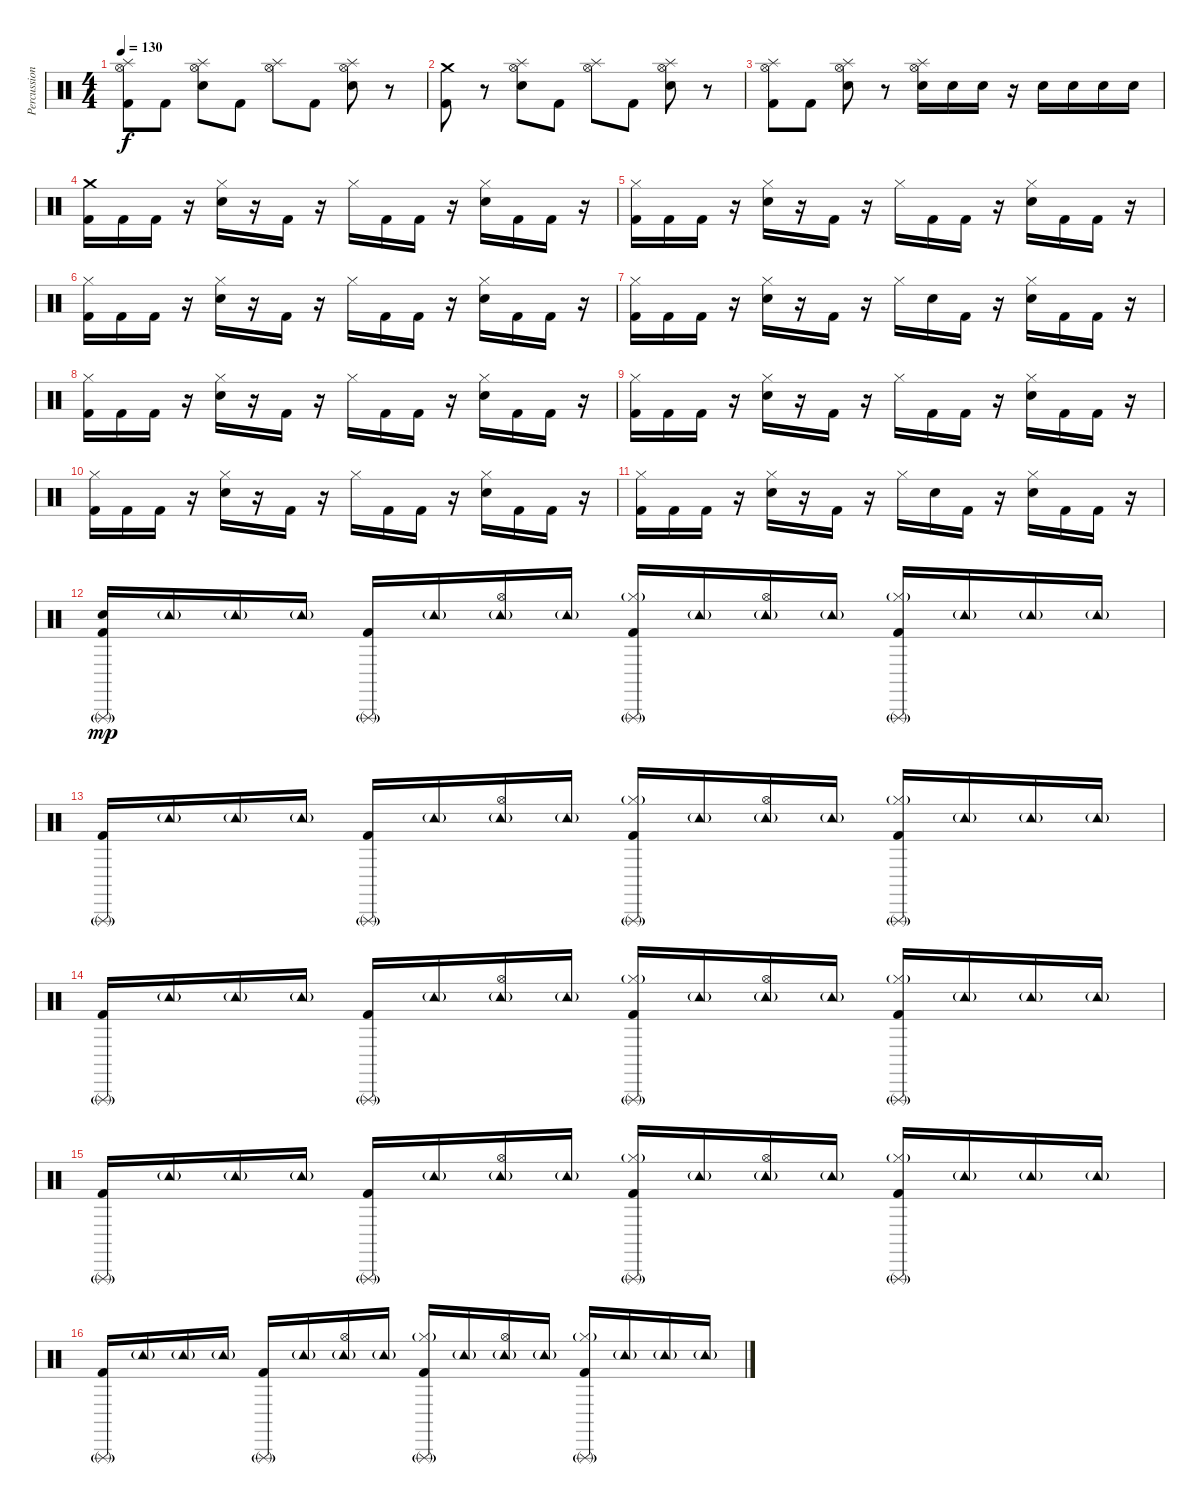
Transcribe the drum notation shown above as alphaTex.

\track ("Percussion" "Percussion") {instrument percussion}
\staff {score}
\articulation defaults
\ts (4 4)
\tempo 130
\clef neutral
\ks c
("Splash (hit)" "Hi-Hat (open)" "Kick (hit) 2").8{dy f} "Kick (hit) 2".8 ("Splash (hit)" "Hi-Hat (open)" "Electric Snare (hit)").8 "Kick (hit) 2".8 ("Splash (hit)" "Hi-Hat (open)").8 "Kick (hit) 2".8 ("Splash (hit)" "Hi-Hat (open)" "Electric Snare (hit)").8 r.8 |
("Crash medium (hit)" "Kick (hit) 2").8 r.8 ("Splash (hit)" "Hi-Hat (open)" "Electric Snare (hit)").8 "Kick (hit) 2".8 ("Splash (hit)" "Hi-Hat (open)").8 "Kick (hit) 2".8 ("Splash (hit)" "Hi-Hat (open)" "Electric Snare (hit)").8 r.8 |
("Splash (hit)" "Hi-Hat (open)" "Kick (hit) 2").8 "Kick (hit) 2".8 ("Splash (hit)" "Hi-Hat (open)" "Electric Snare (hit)").8 r.8 ("Splash (hit)" "Hi-Hat (open)" "Electric Snare (hit)").16 "Electric Snare (hit)".16 "Electric Snare (hit)".16 r.16 "Electric Snare (hit)".16 "Electric Snare (hit)".16 "Electric Snare (hit)".16 "Electric Snare (hit)".16 |
("Crash medium (hit)" "Kick (hit) 2").16 "Kick (hit) 2".16 "Kick (hit) 2".16 r.16 ("Hi-Hat (closed)" "Electric Snare (hit)").16 r.16 "Kick (hit) 2".16 r.16 "Hi-Hat (closed)".16 "Kick (hit) 2".16 "Kick (hit) 2".16 r.16 ("Hi-Hat (closed)" "Electric Snare (hit)").16 "Kick (hit) 2".16 "Kick (hit) 2".16 r.16 |
("Hi-Hat (closed)" "Kick (hit) 2").16 "Kick (hit) 2".16 "Kick (hit) 2".16 r.16 ("Hi-Hat (closed)" "Electric Snare (hit)").16 r.16 "Kick (hit) 2".16 r.16 "Hi-Hat (closed)".16 "Kick (hit) 2".16 "Kick (hit) 2".16 r.16 ("Hi-Hat (closed)" "Electric Snare (hit)").16 "Kick (hit) 2".16 "Kick (hit) 2".16 r.16 |
("Hi-Hat (closed)" "Kick (hit) 2").16 "Kick (hit) 2".16 "Kick (hit) 2".16 r.16 ("Hi-Hat (closed)" "Electric Snare (hit)").16 r.16 "Kick (hit) 2".16 r.16 "Hi-Hat (closed)".16 "Kick (hit) 2".16 "Kick (hit) 2".16 r.16 ("Hi-Hat (closed)" "Electric Snare (hit)").16 "Kick (hit) 2".16 "Kick (hit) 2".16 r.16 |
("Hi-Hat (closed)" "Kick (hit) 2").16 "Kick (hit) 2".16 "Kick (hit) 2".16 r.16 ("Hi-Hat (closed)" "Electric Snare (hit)").16 r.16 "Kick (hit) 2".16 r.16 "Hi-Hat (closed)".16 "Electric Snare (hit)".16 "Kick (hit) 2".16 r.16 ("Hi-Hat (closed)" "Electric Snare (hit)").16 "Kick (hit) 2".16 "Kick (hit) 2".16 r.16 |
("Hi-Hat (closed)" "Kick (hit) 2").16 "Kick (hit) 2".16 "Kick (hit) 2".16 r.16 ("Hi-Hat (closed)" "Electric Snare (hit)").16 r.16 "Kick (hit) 2".16 r.16 "Hi-Hat (closed)".16 "Kick (hit) 2".16 "Kick (hit) 2".16 r.16 ("Hi-Hat (closed)" "Electric Snare (hit)").16 "Kick (hit) 2".16 "Kick (hit) 2".16 r.16 |
("Hi-Hat (closed)" "Kick (hit) 2").16 "Kick (hit) 2".16 "Kick (hit) 2".16 r.16 ("Hi-Hat (closed)" "Electric Snare (hit)").16 r.16 "Kick (hit) 2".16 r.16 "Hi-Hat (closed)".16 "Kick (hit) 2".16 "Kick (hit) 2".16 r.16 ("Hi-Hat (closed)" "Electric Snare (hit)").16 "Kick (hit) 2".16 "Kick (hit) 2".16 r.16 |
("Hi-Hat (closed)" "Kick (hit) 2").16 "Kick (hit) 2".16 "Kick (hit) 2".16 r.16 ("Hi-Hat (closed)" "Electric Snare (hit)").16 r.16 "Kick (hit) 2".16 r.16 "Hi-Hat (closed)".16 "Kick (hit) 2".16 "Kick (hit) 2".16 r.16 ("Hi-Hat (closed)" "Electric Snare (hit)").16 "Kick (hit) 2".16 "Kick (hit) 2".16 r.16 |
("Hi-Hat (closed)" "Kick (hit) 2").16 "Kick (hit) 2".16 "Kick (hit) 2".16 r.16 ("Hi-Hat (closed)" "Electric Snare (hit)").16 r.16 "Kick (hit) 2".16 r.16 "Hi-Hat (closed)".16 "Electric Snare (hit)".16 "Kick (hit) 2".16 r.16 ("Hi-Hat (closed)" "Electric Snare (hit)").16 "Kick (hit) 2".16 "Kick (hit) 2".16 r.16 |
("Triangle (rnute)"{g} "Electric Snare (hit)" "Kick (hit) 2").16{dy mp} "Tambourine (hit)"{g}.16 "Tambourine (hit)"{g}.16 "Tambourine (hit)"{g}.16 ("Triangle (rnute)"{g} "Kick (hit) 2").16 "Tambourine (hit)"{g}.16 ("Hi-Hat (open)" "Tambourine (hit)"{g}).16 "Tambourine (hit)"{g}.16 ("Hi-Hat (closed)"{g} "Triangle (rnute)"{g} "Kick (hit) 2").16 "Tambourine (hit)"{g}.16 ("Hi-Hat (open)" "Tambourine (hit)"{g}).16 "Tambourine (hit)"{g}.16 ("Hi-Hat (closed)"{g} "Triangle (rnute)"{g} "Kick (hit) 2").16 "Tambourine (hit)"{g}.16 "Tambourine (hit)"{g}.16 "Tambourine (hit)"{g}.16 |
("Triangle (rnute)"{g} "Kick (hit) 2").16 "Tambourine (hit)"{g}.16 "Tambourine (hit)"{g}.16 "Tambourine (hit)"{g}.16 ("Triangle (rnute)"{g} "Kick (hit) 2").16 "Tambourine (hit)"{g}.16 ("Hi-Hat (open)" "Tambourine (hit)"{g}).16 "Tambourine (hit)"{g}.16 ("Hi-Hat (closed)"{g} "Triangle (rnute)"{g} "Kick (hit) 2").16 "Tambourine (hit)"{g}.16 ("Hi-Hat (open)" "Tambourine (hit)"{g}).16 "Tambourine (hit)"{g}.16 ("Hi-Hat (closed)"{g} "Triangle (rnute)"{g} "Kick (hit) 2").16 "Tambourine (hit)"{g}.16 "Tambourine (hit)"{g}.16 "Tambourine (hit)"{g}.16 |
("Triangle (rnute)"{g} "Kick (hit) 2").16 "Tambourine (hit)"{g}.16 "Tambourine (hit)"{g}.16 "Tambourine (hit)"{g}.16 ("Triangle (rnute)"{g} "Kick (hit) 2").16 "Tambourine (hit)"{g}.16 ("Hi-Hat (open)" "Tambourine (hit)"{g}).16 "Tambourine (hit)"{g}.16 ("Hi-Hat (closed)"{g} "Triangle (rnute)"{g} "Kick (hit) 2").16 "Tambourine (hit)"{g}.16 ("Hi-Hat (open)" "Tambourine (hit)"{g}).16 "Tambourine (hit)"{g}.16 ("Hi-Hat (closed)"{g} "Triangle (rnute)"{g} "Kick (hit) 2").16 "Tambourine (hit)"{g}.16 "Tambourine (hit)"{g}.16 "Tambourine (hit)"{g}.16 |
("Triangle (rnute)"{g} "Kick (hit) 2").16 "Tambourine (hit)"{g}.16 "Tambourine (hit)"{g}.16 "Tambourine (hit)"{g}.16 ("Triangle (rnute)"{g} "Kick (hit) 2").16 "Tambourine (hit)"{g}.16 ("Hi-Hat (open)" "Tambourine (hit)"{g}).16 "Tambourine (hit)"{g}.16 ("Hi-Hat (closed)"{g} "Triangle (rnute)"{g} "Kick (hit) 2").16 "Tambourine (hit)"{g}.16 ("Hi-Hat (open)" "Tambourine (hit)"{g}).16 "Tambourine (hit)"{g}.16 ("Hi-Hat (closed)"{g} "Triangle (rnute)"{g} "Kick (hit) 2").16 "Tambourine (hit)"{g}.16 "Tambourine (hit)"{g}.16 "Tambourine (hit)"{g}.16 |
("Triangle (rnute)"{g} "Kick (hit) 2").16 "Tambourine (hit)"{g}.16 "Tambourine (hit)"{g}.16 "Tambourine (hit)"{g}.16 ("Triangle (rnute)"{g} "Kick (hit) 2").16 "Tambourine (hit)"{g}.16 ("Hi-Hat (open)" "Tambourine (hit)"{g}).16 "Tambourine (hit)"{g}.16 ("Hi-Hat (closed)"{g} "Triangle (rnute)"{g} "Kick (hit) 2").16 "Tambourine (hit)"{g}.16 ("Hi-Hat (open)" "Tambourine (hit)"{g}).16 "Tambourine (hit)"{g}.16 ("Hi-Hat (closed)"{g} "Triangle (rnute)"{g} "Kick (hit) 2").16 "Tambourine (hit)"{g}.16 "Tambourine (hit)"{g}.16 "Tambourine (hit)"{g}.16
